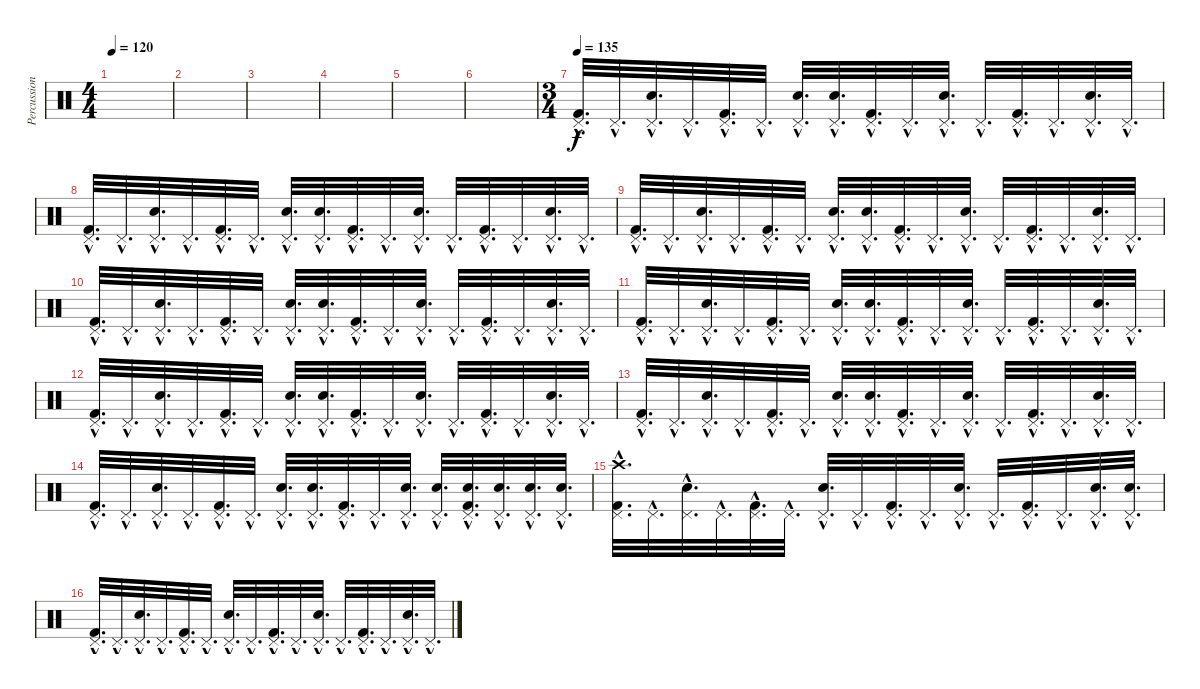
\track ("Percussion" "Percussion") {instrument percussion}
\staff {score}
\articulation defaults
\ts (4 4)
\tempo 120
\clef neutral
\ks c
|
|
|
|
|
|
\ts (3 4)
\tempo 135
("Kick (hit) 2"{hac} "Pedal Hi-Hat (hit)"{hac}).32{d} "Pedal Hi-Hat (hit)"{hac}.32{d} ("Pedal Hi-Hat (hit)"{hac} "Electric Snare (hit)"{hac}).32{d} "Pedal Hi-Hat (hit)"{hac}.32{d} ("Kick (hit) 2"{hac} "Pedal Hi-Hat (hit)"{hac}).32{d} "Pedal Hi-Hat (hit)"{hac}.32{d} ("Pedal Hi-Hat (hit)"{hac} "Electric Snare (hit)"{hac}).32{d} ("Pedal Hi-Hat (hit)"{hac} "Electric Snare (hit)"{hac}).32{d} ("Kick (hit) 2"{hac} "Pedal Hi-Hat (hit)"{hac}).32{d} "Pedal Hi-Hat (hit)"{hac}.32{d} ("Pedal Hi-Hat (hit)"{hac} "Electric Snare (hit)"{hac}).32{d} "Pedal Hi-Hat (hit)"{hac}.32{d} ("Kick (hit) 2"{hac} "Pedal Hi-Hat (hit)"{hac}).32{d} "Pedal Hi-Hat (hit)"{hac}.32{d} ("Pedal Hi-Hat (hit)"{hac} "Electric Snare (hit)"{hac}).32{d} "Pedal Hi-Hat (hit)"{hac}.32{d} |
("Kick (hit) 2"{hac} "Pedal Hi-Hat (hit)"{hac}).32{d} "Pedal Hi-Hat (hit)"{hac}.32{d} ("Pedal Hi-Hat (hit)"{hac} "Electric Snare (hit)"{hac}).32{d} "Pedal Hi-Hat (hit)"{hac}.32{d} ("Kick (hit) 2"{hac} "Pedal Hi-Hat (hit)"{hac}).32{d} "Pedal Hi-Hat (hit)"{hac}.32{d} ("Pedal Hi-Hat (hit)"{hac} "Electric Snare (hit)"{hac}).32{d} ("Pedal Hi-Hat (hit)"{hac} "Electric Snare (hit)"{hac}).32{d} ("Kick (hit) 2"{hac} "Pedal Hi-Hat (hit)"{hac}).32{d} "Pedal Hi-Hat (hit)"{hac}.32{d} ("Pedal Hi-Hat (hit)"{hac} "Electric Snare (hit)"{hac}).32{d} "Pedal Hi-Hat (hit)"{hac}.32{d} ("Kick (hit) 2"{hac} "Pedal Hi-Hat (hit)"{hac}).32{d} "Pedal Hi-Hat (hit)"{hac}.32{d} ("Pedal Hi-Hat (hit)"{hac} "Electric Snare (hit)"{hac}).32{d} "Pedal Hi-Hat (hit)"{hac}.32{d} |
("Kick (hit) 2"{hac} "Pedal Hi-Hat (hit)"{hac}).32{d} "Pedal Hi-Hat (hit)"{hac}.32{d} ("Pedal Hi-Hat (hit)"{hac} "Electric Snare (hit)"{hac}).32{d} "Pedal Hi-Hat (hit)"{hac}.32{d} ("Kick (hit) 2"{hac} "Pedal Hi-Hat (hit)"{hac}).32{d} "Pedal Hi-Hat (hit)"{hac}.32{d} ("Pedal Hi-Hat (hit)"{hac} "Electric Snare (hit)"{hac}).32{d} ("Pedal Hi-Hat (hit)"{hac} "Electric Snare (hit)"{hac}).32{d} ("Kick (hit) 2"{hac} "Pedal Hi-Hat (hit)"{hac}).32{d} "Pedal Hi-Hat (hit)"{hac}.32{d} ("Pedal Hi-Hat (hit)"{hac} "Electric Snare (hit)"{hac}).32{d} "Pedal Hi-Hat (hit)"{hac}.32{d} ("Kick (hit) 2"{hac} "Pedal Hi-Hat (hit)"{hac}).32{d} "Pedal Hi-Hat (hit)"{hac}.32{d} ("Pedal Hi-Hat (hit)"{hac} "Electric Snare (hit)"{hac}).32{d} "Pedal Hi-Hat (hit)"{hac}.32{d} |
("Kick (hit) 2"{hac} "Pedal Hi-Hat (hit)"{hac}).32{d} "Pedal Hi-Hat (hit)"{hac}.32{d} ("Pedal Hi-Hat (hit)"{hac} "Electric Snare (hit)"{hac}).32{d} "Pedal Hi-Hat (hit)"{hac}.32{d} ("Kick (hit) 2"{hac} "Pedal Hi-Hat (hit)"{hac}).32{d} "Pedal Hi-Hat (hit)"{hac}.32{d} ("Pedal Hi-Hat (hit)"{hac} "Electric Snare (hit)"{hac}).32{d} ("Pedal Hi-Hat (hit)"{hac} "Electric Snare (hit)"{hac}).32{d} ("Kick (hit) 2"{hac} "Pedal Hi-Hat (hit)"{hac}).32{d} "Pedal Hi-Hat (hit)"{hac}.32{d} ("Pedal Hi-Hat (hit)"{hac} "Electric Snare (hit)"{hac}).32{d} "Pedal Hi-Hat (hit)"{hac}.32{d} ("Kick (hit) 2"{hac} "Pedal Hi-Hat (hit)"{hac}).32{d} "Pedal Hi-Hat (hit)"{hac}.32{d} ("Pedal Hi-Hat (hit)"{hac} "Electric Snare (hit)"{hac}).32{d} "Pedal Hi-Hat (hit)"{hac}.32{d} |
("Kick (hit) 2"{hac} "Pedal Hi-Hat (hit)"{hac}).32{d} "Pedal Hi-Hat (hit)"{hac}.32{d} ("Pedal Hi-Hat (hit)"{hac} "Electric Snare (hit)"{hac}).32{d} "Pedal Hi-Hat (hit)"{hac}.32{d} ("Kick (hit) 2"{hac} "Pedal Hi-Hat (hit)"{hac}).32{d} "Pedal Hi-Hat (hit)"{hac}.32{d} ("Pedal Hi-Hat (hit)"{hac} "Electric Snare (hit)"{hac}).32{d} ("Pedal Hi-Hat (hit)"{hac} "Electric Snare (hit)"{hac}).32{d} ("Kick (hit) 2"{hac} "Pedal Hi-Hat (hit)"{hac}).32{d} "Pedal Hi-Hat (hit)"{hac}.32{d} ("Pedal Hi-Hat (hit)"{hac} "Electric Snare (hit)"{hac}).32{d} "Pedal Hi-Hat (hit)"{hac}.32{d} ("Kick (hit) 2"{hac} "Pedal Hi-Hat (hit)"{hac}).32{d} "Pedal Hi-Hat (hit)"{hac}.32{d} ("Pedal Hi-Hat (hit)"{hac} "Electric Snare (hit)"{hac}).32{d} "Pedal Hi-Hat (hit)"{hac}.32{d} |
("Kick (hit) 2"{hac} "Pedal Hi-Hat (hit)"{hac}).32{d} "Pedal Hi-Hat (hit)"{hac}.32{d} ("Pedal Hi-Hat (hit)"{hac} "Electric Snare (hit)"{hac}).32{d} "Pedal Hi-Hat (hit)"{hac}.32{d} ("Kick (hit) 2"{hac} "Pedal Hi-Hat (hit)"{hac}).32{d} "Pedal Hi-Hat (hit)"{hac}.32{d} ("Pedal Hi-Hat (hit)"{hac} "Electric Snare (hit)"{hac}).32{d} ("Pedal Hi-Hat (hit)"{hac} "Electric Snare (hit)"{hac}).32{d} ("Kick (hit) 2"{hac} "Pedal Hi-Hat (hit)"{hac}).32{d} "Pedal Hi-Hat (hit)"{hac}.32{d} ("Pedal Hi-Hat (hit)"{hac} "Electric Snare (hit)"{hac}).32{d} "Pedal Hi-Hat (hit)"{hac}.32{d} ("Kick (hit) 2"{hac} "Pedal Hi-Hat (hit)"{hac}).32{d} "Pedal Hi-Hat (hit)"{hac}.32{d} ("Pedal Hi-Hat (hit)"{hac} "Electric Snare (hit)"{hac}).32{d} "Pedal Hi-Hat (hit)"{hac}.32{d} |
("Kick (hit) 2"{hac} "Pedal Hi-Hat (hit)"{hac}).32{d} "Pedal Hi-Hat (hit)"{hac}.32{d} ("Pedal Hi-Hat (hit)"{hac} "Electric Snare (hit)"{hac}).32{d} "Pedal Hi-Hat (hit)"{hac}.32{d} ("Kick (hit) 2"{hac} "Pedal Hi-Hat (hit)"{hac}).32{d} "Pedal Hi-Hat (hit)"{hac}.32{d} ("Pedal Hi-Hat (hit)"{hac} "Electric Snare (hit)"{hac}).32{d} ("Pedal Hi-Hat (hit)"{hac} "Electric Snare (hit)"{hac}).32{d} ("Kick (hit) 2"{hac} "Pedal Hi-Hat (hit)"{hac}).32{d} "Pedal Hi-Hat (hit)"{hac}.32{d} ("Pedal Hi-Hat (hit)"{hac} "Electric Snare (hit)"{hac}).32{d} "Pedal Hi-Hat (hit)"{hac}.32{d} ("Kick (hit) 2"{hac} "Pedal Hi-Hat (hit)"{hac}).32{d} "Pedal Hi-Hat (hit)"{hac}.32{d} ("Pedal Hi-Hat (hit)"{hac} "Electric Snare (hit)"{hac}).32{d} "Pedal Hi-Hat (hit)"{hac}.32{d} |
("Kick (hit) 2"{hac} "Pedal Hi-Hat (hit)"{hac}).32{d} "Pedal Hi-Hat (hit)"{hac}.32{d} ("Pedal Hi-Hat (hit)"{hac} "Electric Snare (hit)"{hac}).32{d} "Pedal Hi-Hat (hit)"{hac}.32{d} ("Kick (hit) 2"{hac} "Pedal Hi-Hat (hit)"{hac}).32{d} "Pedal Hi-Hat (hit)"{hac}.32{d} ("Pedal Hi-Hat (hit)"{hac} "Electric Snare (hit)"{hac}).32{d} ("Pedal Hi-Hat (hit)"{hac} "Electric Snare (hit)"{hac}).32{d} ("Kick (hit) 2"{hac} "Pedal Hi-Hat (hit)"{hac}).32{d} "Pedal Hi-Hat (hit)"{hac}.32{d} ("Pedal Hi-Hat (hit)"{hac} "Electric Snare (hit)"{hac}).32{d} ("Pedal Hi-Hat (hit)"{hac} "Electric Snare (hit)"{hac}).32{d} ("Kick (hit) 2"{hac} "Pedal Hi-Hat (hit)"{hac} "Electric Snare (hit)"{hac}).32{d} ("Pedal Hi-Hat (hit)"{hac} "Electric Snare (hit)"{hac}).32{d} ("Pedal Hi-Hat (hit)"{hac} "Electric Snare (hit)"{hac}).32{d} ("Pedal Hi-Hat (hit)"{hac} "Electric Snare (hit)"{hac}).32{d} |
("Kick (hit) 2"{hac} "Pedal Hi-Hat (hit)"{hac} "Crash high (hit)"{hac}).32{d} "Pedal Hi-Hat (hit)"{hac}.32{d} ("Pedal Hi-Hat (hit)"{hac} "Electric Snare (hit)"{hac}).32{d} "Pedal Hi-Hat (hit)"{hac}.32{d} ("Kick (hit) 2"{hac} "Pedal Hi-Hat (hit)"{hac}).32{d} "Pedal Hi-Hat (hit)"{hac}.32{d} ("Pedal Hi-Hat (hit)"{hac} "Electric Snare (hit)"{hac}).32{d} "Pedal Hi-Hat (hit)"{hac}.32{d} ("Kick (hit) 2"{hac} "Pedal Hi-Hat (hit)"{hac}).32{d} "Pedal Hi-Hat (hit)"{hac}.32{d} ("Pedal Hi-Hat (hit)"{hac} "Electric Snare (hit)"{hac}).32{d} "Pedal Hi-Hat (hit)"{hac}.32{d} ("Kick (hit) 2"{hac} "Pedal Hi-Hat (hit)"{hac}).32{d} "Pedal Hi-Hat (hit)"{hac}.32{d} ("Pedal Hi-Hat (hit)"{hac} "Electric Snare (hit)"{hac}).32{d} ("Pedal Hi-Hat (hit)"{hac} "Electric Snare (hit)"{hac}).32{d} |
("Kick (hit) 2"{hac} "Pedal Hi-Hat (hit)"{hac}).32{d} "Pedal Hi-Hat (hit)"{hac}.32{d} ("Pedal Hi-Hat (hit)"{hac} "Electric Snare (hit)"{hac}).32{d} "Pedal Hi-Hat (hit)"{hac}.32{d} ("Kick (hit) 2"{hac} "Pedal Hi-Hat (hit)"{hac}).32{d} "Pedal Hi-Hat (hit)"{hac}.32{d} ("Pedal Hi-Hat (hit)"{hac} "Electric Snare (hit)"{hac}).32{d} "Pedal Hi-Hat (hit)"{hac}.32{d} ("Kick (hit) 2"{hac} "Pedal Hi-Hat (hit)"{hac}).32{d} "Pedal Hi-Hat (hit)"{hac}.32{d} ("Pedal Hi-Hat (hit)"{hac} "Electric Snare (hit)"{hac}).32{d} "Pedal Hi-Hat (hit)"{hac}.32{d} ("Kick (hit) 2"{hac} "Pedal Hi-Hat (hit)"{hac}).32{d} "Pedal Hi-Hat (hit)"{hac}.32{d} ("Pedal Hi-Hat (hit)"{hac} "Electric Snare (hit)"{hac}).32{d} "Pedal Hi-Hat (hit)"{hac}.32{d}
